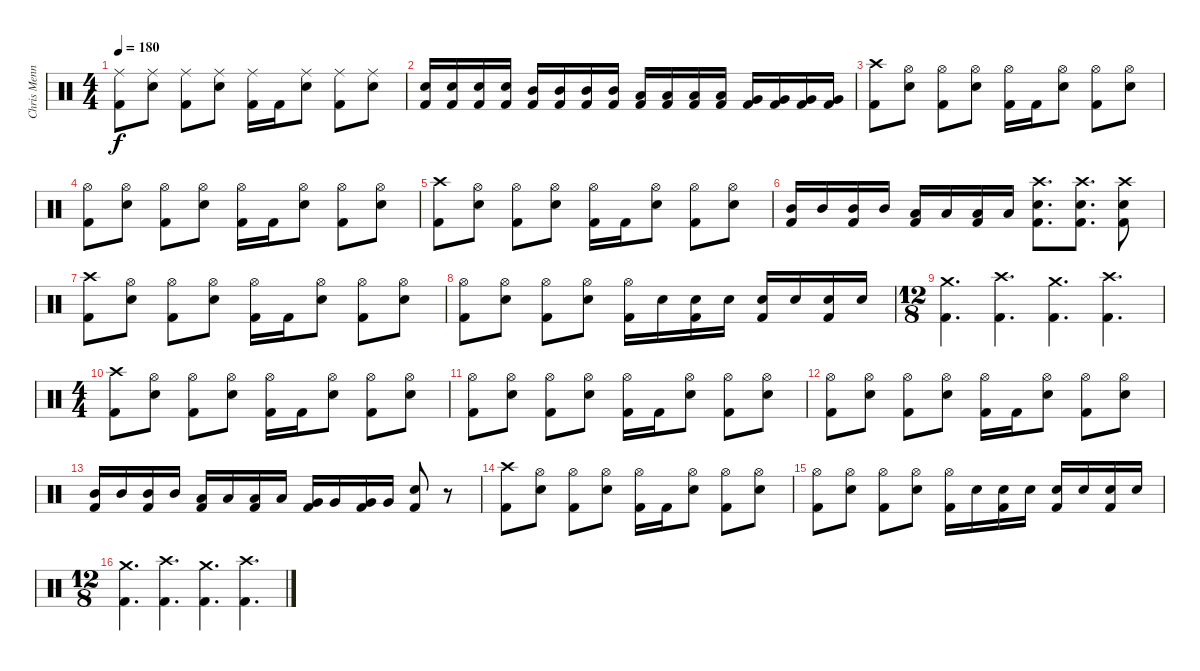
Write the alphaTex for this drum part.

\track ("Chris Menning" "Chris Menn") {instrument percussion}
\staff {score}
\articulation defaults
\ts (4 4)
\tempo 180
\clef neutral
\ks c
("Ride (middle)" "Kick (hit) 2").8{dy f} ("Ride (middle)" "Electric Snare (hit)").8 ("Ride (middle)" "Kick (hit) 2").8 ("Ride (middle)" "Electric Snare (hit)").8 ("Ride (middle)" "Kick (hit) 2").16 "Kick (hit) 2".16 ("Ride (middle)" "Electric Snare (hit)").8 ("Ride (middle)" "Kick (hit) 2").8 ("Ride (middle)" "Electric Snare (hit)").8 |
("Electric Snare (hit)" "Kick (hit) 2").16 ("Electric Snare (hit)" "Kick (hit) 2").16 ("Electric Snare (hit)" "Kick (hit) 2").16 ("Electric Snare (hit)" "Kick (hit) 2").16 ("Mid Tom (hit)" "Kick (hit) 2").16 ("Mid Tom (hit)" "Kick (hit) 2").16 ("Mid Tom (hit)" "Kick (hit) 2").16 ("Mid Tom (hit)" "Kick (hit) 2").16 ("Low Tom (hit)" "Kick (hit) 2").16 ("Low Tom (hit)" "Kick (hit) 2").16 ("Low Tom (hit)" "Kick (hit) 2").16 ("Low Tom (hit)" "Kick (hit) 2").16 ("Very Low Tom (hit)" "Kick (hit) 2").16 ("Very Low Tom (hit)" "Kick (hit) 2").16 ("Very Low Tom (hit)" "Kick (hit) 2").16 ("Very Low Tom (hit)" "Kick (hit) 2").16 |
("Crash high (hit)" "Kick (hit) 2").8 ("Hi-Hat (open)" "Electric Snare (hit)").8 ("Hi-Hat (open)" "Kick (hit) 2").8 ("Hi-Hat (open)" "Electric Snare (hit)").8 ("Hi-Hat (open)" "Kick (hit) 2").16 "Kick (hit) 2".16 ("Hi-Hat (open)" "Electric Snare (hit)").8 ("Hi-Hat (open)" "Kick (hit) 2").8 ("Hi-Hat (open)" "Electric Snare (hit)").8 |
("Hi-Hat (open)" "Kick (hit) 2").8 ("Hi-Hat (open)" "Electric Snare (hit)").8 ("Hi-Hat (open)" "Kick (hit) 2").8 ("Hi-Hat (open)" "Electric Snare (hit)").8 ("Hi-Hat (open)" "Kick (hit) 2").16 "Kick (hit) 2".16 ("Hi-Hat (open)" "Electric Snare (hit)").8 ("Hi-Hat (open)" "Kick (hit) 2").8 ("Hi-Hat (open)" "Electric Snare (hit)").8 |
("Crash high (hit)" "Kick (hit) 2").8 ("Hi-Hat (open)" "Electric Snare (hit)").8 ("Hi-Hat (open)" "Kick (hit) 2").8 ("Hi-Hat (open)" "Electric Snare (hit)").8 ("Hi-Hat (open)" "Kick (hit) 2").16 "Kick (hit) 2".16 ("Hi-Hat (open)" "Electric Snare (hit)").8 ("Hi-Hat (open)" "Kick (hit) 2").8 ("Hi-Hat (open)" "Electric Snare (hit)").8 |
("Mid Tom (hit)" "Kick (hit) 2").16 "Mid Tom (hit)".16 ("Mid Tom (hit)" "Kick (hit) 2").16 "Mid Tom (hit)".16 ("Low Tom (hit)" "Kick (hit) 2").16 "Low Tom (hit)".16 ("Low Tom (hit)" "Kick (hit) 2").16 "Low Tom (hit)".16 ("Crash high (hit)" "Electric Snare (hit)" "Kick (hit) 2").8{d} ("Crash high (hit)" "Electric Snare (hit)" "Kick (hit) 2").8{d} ("Crash high (hit)" "Electric Snare (hit)" "Kick (hit) 2").8 |
("Crash high (hit)" "Kick (hit) 2").8 ("Hi-Hat (open)" "Electric Snare (hit)").8 ("Hi-Hat (open)" "Kick (hit) 2").8 ("Hi-Hat (open)" "Electric Snare (hit)").8 ("Hi-Hat (open)" "Kick (hit) 2").16 "Kick (hit) 2".16 ("Hi-Hat (open)" "Electric Snare (hit)").8 ("Hi-Hat (open)" "Kick (hit) 2").8 ("Hi-Hat (open)" "Electric Snare (hit)").8 |
("Hi-Hat (open)" "Kick (hit) 2").8 ("Hi-Hat (open)" "Electric Snare (hit)").8 ("Hi-Hat (open)" "Kick (hit) 2").8 ("Hi-Hat (open)" "Electric Snare (hit)").8 ("Hi-Hat (open)" "Kick (hit) 2").16 "Electric Snare (hit)".16 ("Electric Snare (hit)" "Kick (hit) 2").16 "Electric Snare (hit)".16 ("Electric Snare (hit)" "Kick (hit) 2").16 "Electric Snare (hit)".16 ("Electric Snare (hit)" "Kick (hit) 2").16 "Electric Snare (hit)".16 |
\ts (12 8)
("Crash medium (hit)" "Kick (hit) 2").4{d} ("Crash high (hit)" "Kick (hit) 2").4{d} ("Crash medium (hit)" "Kick (hit) 2").4{d} ("Crash high (hit)" "Kick (hit) 2").4{d} |
\ts (4 4)
("Crash high (hit)" "Kick (hit) 2").8 ("Hi-Hat (open)" "Electric Snare (hit)").8 ("Hi-Hat (open)" "Kick (hit) 2").8 ("Hi-Hat (open)" "Electric Snare (hit)").8 ("Hi-Hat (open)" "Kick (hit) 2").16 "Kick (hit) 2".16 ("Hi-Hat (open)" "Electric Snare (hit)").8 ("Hi-Hat (open)" "Kick (hit) 2").8 ("Hi-Hat (open)" "Electric Snare (hit)").8 |
("Hi-Hat (open)" "Kick (hit) 2").8 ("Hi-Hat (open)" "Electric Snare (hit)").8 ("Hi-Hat (open)" "Kick (hit) 2").8 ("Hi-Hat (open)" "Electric Snare (hit)").8 ("Hi-Hat (open)" "Kick (hit) 2").16 "Kick (hit) 2".16 ("Hi-Hat (open)" "Electric Snare (hit)").8 ("Hi-Hat (open)" "Kick (hit) 2").8 ("Hi-Hat (open)" "Electric Snare (hit)").8 |
("Hi-Hat (open)" "Kick (hit) 2").8 ("Hi-Hat (open)" "Electric Snare (hit)").8 ("Hi-Hat (open)" "Kick (hit) 2").8 ("Hi-Hat (open)" "Electric Snare (hit)").8 ("Hi-Hat (open)" "Kick (hit) 2").16 "Kick (hit) 2".16 ("Hi-Hat (open)" "Electric Snare (hit)").8 ("Hi-Hat (open)" "Kick (hit) 2").8 ("Hi-Hat (open)" "Electric Snare (hit)").8 |
("Mid Tom (hit)" "Kick (hit) 2").16 "Mid Tom (hit)".16 ("Mid Tom (hit)" "Kick (hit) 2").16 "Mid Tom (hit)".16 ("Low Tom (hit)" "Kick (hit) 2").16 "Low Tom (hit)".16 ("Low Tom (hit)" "Kick (hit) 2").16 "Low Tom (hit)".16 ("Very Low Tom (hit)" "Kick (hit) 2").16 "Very Low Tom (hit)".16 ("Very Low Tom (hit)" "Kick (hit) 2").16 "Very Low Tom (hit)".16 ("Electric Snare (hit)" "Kick (hit) 2").8 r.8 |
("Crash high (hit)" "Kick (hit) 2").8 ("Hi-Hat (open)" "Electric Snare (hit)").8 ("Hi-Hat (open)" "Kick (hit) 2").8 ("Hi-Hat (open)" "Electric Snare (hit)").8 ("Hi-Hat (open)" "Kick (hit) 2").16 "Kick (hit) 2".16 ("Hi-Hat (open)" "Electric Snare (hit)").8 ("Hi-Hat (open)" "Kick (hit) 2").8 ("Hi-Hat (open)" "Electric Snare (hit)").8 |
("Hi-Hat (open)" "Kick (hit) 2").8 ("Hi-Hat (open)" "Electric Snare (hit)").8 ("Hi-Hat (open)" "Kick (hit) 2").8 ("Hi-Hat (open)" "Electric Snare (hit)").8 ("Hi-Hat (open)" "Kick (hit) 2").16 "Electric Snare (hit)".16 ("Electric Snare (hit)" "Kick (hit) 2").16 "Electric Snare (hit)".16 ("Electric Snare (hit)" "Kick (hit) 2").16 "Electric Snare (hit)".16 ("Electric Snare (hit)" "Kick (hit) 2").16 "Electric Snare (hit)".16 |
\ts (12 8)
("Crash medium (hit)" "Kick (hit) 2").4{d} ("Crash high (hit)" "Kick (hit) 2").4{d} ("Crash medium (hit)" "Kick (hit) 2").4{d} ("Crash high (hit)" "Kick (hit) 2").4{d}
